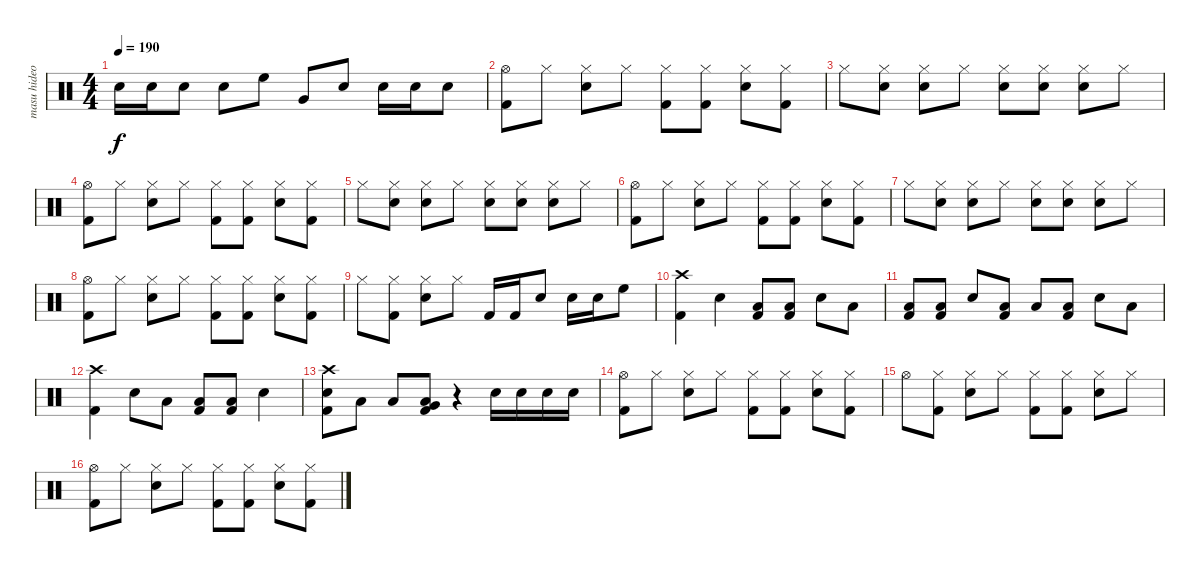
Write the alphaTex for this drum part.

\track ("masu hideo" "masu hideo") {instrument percussion}
\staff {score}
\articulation defaults
\ts (4 4)
\tempo 190
\clef neutral
\ks c "Snare (hit) 2".16{dy f} "Snare (hit) 2".16 "Snare (hit) 2".8 "Snare (hit) 2".8 "High Floor Tom (hit)".8 "Very Low Tom (hit)".8 "Snare (hit) 2".8 "Snare (hit) 2".16 "Snare (hit) 2".16 "Snare (hit) 2".8
|
("Hi-Hat (open)" "Kick (hit) 2").8 "Hi-Hat (closed)".8 ("Hi-Hat (closed)" "Snare (hit) 2").8 "Hi-Hat (closed)".8 ("Hi-Hat (closed)" "Kick (hit) 2").8 ("Hi-Hat (closed)" "Kick (hit) 2").8 ("Hi-Hat (closed)" "Snare (hit) 2").8 ("Hi-Hat (closed)" "Kick (hit) 2").8 |
"Hi-Hat (closed)".8 ("Hi-Hat (closed)" "Snare (hit) 2").8 ("Hi-Hat (closed)" "Snare (hit) 2").8 "Hi-Hat (closed)".8 ("Hi-Hat (closed)" "Snare (hit) 2").8 ("Hi-Hat (closed)" "Snare (hit) 2").8 ("Hi-Hat (closed)" "Snare (hit) 2").8 "Hi-Hat (closed)".8 |
("Hi-Hat (open)" "Kick (hit) 2").8 "Hi-Hat (closed)".8 ("Hi-Hat (closed)" "Snare (hit) 2").8 "Hi-Hat (closed)".8 ("Hi-Hat (closed)" "Kick (hit) 2").8 ("Hi-Hat (closed)" "Kick (hit) 2").8 ("Hi-Hat (closed)" "Snare (hit) 2").8 ("Hi-Hat (closed)" "Kick (hit) 2").8 |
"Hi-Hat (closed)".8 ("Hi-Hat (closed)" "Snare (hit) 2").8 ("Hi-Hat (closed)" "Snare (hit) 2").8 "Hi-Hat (closed)".8 ("Hi-Hat (closed)" "Snare (hit) 2").8 ("Hi-Hat (closed)" "Snare (hit) 2").8 ("Hi-Hat (closed)" "Snare (hit) 2").8 "Hi-Hat (closed)".8 |
("Hi-Hat (open)" "Kick (hit) 2").8 "Hi-Hat (closed)".8 ("Hi-Hat (closed)" "Snare (hit) 2").8 "Hi-Hat (closed)".8 ("Hi-Hat (closed)" "Kick (hit) 2").8 ("Hi-Hat (closed)" "Kick (hit) 2").8 ("Hi-Hat (closed)" "Snare (hit) 2").8 ("Hi-Hat (closed)" "Kick (hit) 2").8 |
"Hi-Hat (closed)".8 ("Hi-Hat (closed)" "Snare (hit) 2").8 ("Hi-Hat (closed)" "Snare (hit) 2").8 "Hi-Hat (closed)".8 ("Hi-Hat (closed)" "Snare (hit) 2").8 ("Hi-Hat (closed)" "Snare (hit) 2").8 ("Hi-Hat (closed)" "Snare (hit) 2").8 "Hi-Hat (closed)".8 |
("Hi-Hat (open)" "Kick (hit) 2").8 "Hi-Hat (closed)".8 ("Hi-Hat (closed)" "Snare (hit) 2").8 "Hi-Hat (closed)".8 ("Hi-Hat (closed)" "Kick (hit) 2").8 ("Hi-Hat (closed)" "Kick (hit) 2").8 ("Hi-Hat (closed)" "Snare (hit) 2").8 ("Hi-Hat (closed)" "Kick (hit) 2").8 |
"Hi-Hat (closed)".8 ("Hi-Hat (closed)" "Kick (hit) 2").8 ("Hi-Hat (closed)" "Snare (hit) 2").8 "Hi-Hat (closed)".8 "Kick (hit) 2".16 "Kick (hit) 2".16 "Snare (hit) 2".8 "Snare (hit) 2".16 "Snare (hit) 2".16 "High Floor Tom (hit)".8 |
("Crash high (hit)" "Kick (hit) 2").4 "Snare (hit) 2".4 ("Low Floor Tom (hit)" "Kick (hit) 2").8 ("Low Floor Tom (hit)" "Kick (hit) 2").8 "Snare (hit) 2".8 "Low Floor Tom (hit)".8 |
("Low Floor Tom (hit)" "Kick (hit) 2").8 ("Low Floor Tom (hit)" "Kick (hit) 2").8 "Snare (hit) 2".8 ("Low Floor Tom (hit)" "Kick (hit) 2").8 "Low Floor Tom (hit)".8 ("Low Floor Tom (hit)" "Kick (hit) 2").8 "Snare (hit) 2".8 "Low Floor Tom (hit)".8 |
("Crash high (hit)" "Kick (hit) 2").4 "Snare (hit) 2".8 "Low Floor Tom (hit)".8 ("Low Floor Tom (hit)" "Kick (hit) 2").8 ("Low Floor Tom (hit)" "Kick (hit) 2").8 "Snare (hit) 2".4 |
("Crash high (hit)" "Snare (hit) 2" "Kick (hit) 2").8 "Low Floor Tom (hit)".8 "Low Floor Tom (hit)".8 ("Very Low Tom (hit)" "Low Floor Tom (hit)" "Kick (hit) 2").8 r.4 "Snare (hit) 2".16 "Snare (hit) 2".16 "Snare (hit) 2".16 "Snare (hit) 2".16 |
("Hi-Hat (open)" "Kick (hit) 2").8 "Hi-Hat (closed)".8 ("Hi-Hat (closed)" "Snare (hit) 2").8 "Hi-Hat (closed)".8 ("Hi-Hat (closed)" "Kick (hit) 2").8 ("Hi-Hat (closed)" "Kick (hit) 2").8 ("Hi-Hat (closed)" "Snare (hit) 2").8 ("Hi-Hat (closed)" "Kick (hit) 2").8 |
"Hi-Hat (open)".8 ("Hi-Hat (closed)" "Kick (hit) 2").8 ("Hi-Hat (closed)" "Snare (hit) 2").8 "Hi-Hat (closed)".8 ("Hi-Hat (closed)" "Kick (hit) 2").8 ("Hi-Hat (closed)" "Kick (hit) 2").8 ("Hi-Hat (closed)" "Snare (hit) 2").8 "Hi-Hat (closed)".8 |
("Hi-Hat (open)" "Kick (hit) 2").8 "Hi-Hat (closed)".8 ("Hi-Hat (closed)" "Snare (hit) 2").8 "Hi-Hat (closed)".8 ("Hi-Hat (closed)" "Kick (hit) 2").8 ("Hi-Hat (closed)" "Kick (hit) 2").8 ("Hi-Hat (closed)" "Snare (hit) 2").8 ("Hi-Hat (closed)" "Kick (hit) 2").8
